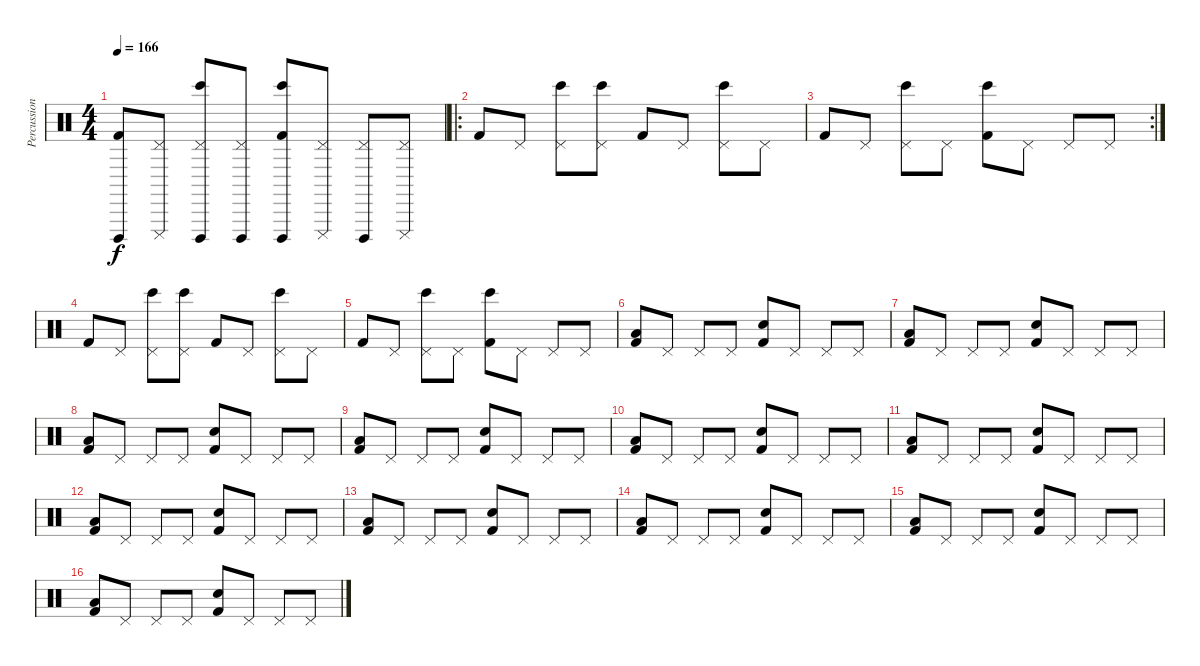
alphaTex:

\track ("Percussion" "Percussion") {instrument percussion}
\staff {score}
\articulation defaults
\ts (4 4)
\tempo 166
\clef neutral
\ks c
("Kick (hit) 2" "Cuica (open)").8{dy f} ("Pedal Hi-Hat (hit)" "Cuica (mute)").8 ("Pedal Hi-Hat (hit)" "Bongo High (hit)" "Cuica (open)").8 ("Pedal Hi-Hat (hit)" "Cuica (open)").8 ("Kick (hit) 2" "Bongo High (hit)" "Cuica (open)").8 ("Pedal Hi-Hat (hit)" "Cuica (mute)").8 ("Pedal Hi-Hat (hit)" "Cuica (open)").8 ("Pedal Hi-Hat (hit)" "Cuica (mute)").8 |
\ro "Kick (hit) 2".8 "Pedal Hi-Hat (hit)".8
("Pedal Hi-Hat (hit)" "Bongo High (hit)").8 ("Pedal Hi-Hat (hit)" "Bongo High (hit)").8 "Kick (hit) 2".8 "Pedal Hi-Hat (hit)".8 ("Pedal Hi-Hat (hit)" "Bongo High (hit)").8 "Pedal Hi-Hat (hit)".8 |
\rc 2 "Kick (hit) 2".8 "Pedal Hi-Hat (hit)".8
("Pedal Hi-Hat (hit)" "Bongo High (hit)").8 "Pedal Hi-Hat (hit)".8 ("Kick (hit) 2" "Bongo High (hit)").8 "Pedal Hi-Hat (hit)".8 "Pedal Hi-Hat (hit)".8 "Pedal Hi-Hat (hit)".8 |
"Kick (hit) 2".8 "Pedal Hi-Hat (hit)".8 ("Pedal Hi-Hat (hit)" "Bongo High (hit)").8 ("Pedal Hi-Hat (hit)" "Bongo High (hit)").8 "Kick (hit) 2".8 "Pedal Hi-Hat (hit)".8 ("Pedal Hi-Hat (hit)" "Bongo High (hit)").8 "Pedal Hi-Hat (hit)".8 |
"Kick (hit) 2".8 "Pedal Hi-Hat (hit)".8 ("Pedal Hi-Hat (hit)" "Bongo High (hit)").8 "Pedal Hi-Hat (hit)".8 ("Kick (hit) 2" "Bongo High (hit)").8 "Pedal Hi-Hat (hit)".8 "Pedal Hi-Hat (hit)".8 "Pedal Hi-Hat (hit)".8 |
("Kick (hit) 2" "Low Tom (hit)").8 "Pedal Hi-Hat (hit)".8 "Pedal Hi-Hat (hit)".8 "Pedal Hi-Hat (hit)".8 ("Kick (hit) 2" "Electric Snare (hit)").8 "Pedal Hi-Hat (hit)".8 "Pedal Hi-Hat (hit)".8 "Pedal Hi-Hat (hit)".8 |
("Kick (hit) 2" "Low Tom (hit)").8 "Pedal Hi-Hat (hit)".8 "Pedal Hi-Hat (hit)".8 "Pedal Hi-Hat (hit)".8 ("Kick (hit) 2" "Electric Snare (hit)").8 "Pedal Hi-Hat (hit)".8 "Pedal Hi-Hat (hit)".8 "Pedal Hi-Hat (hit)".8 |
("Kick (hit) 2" "Low Tom (hit)").8 "Pedal Hi-Hat (hit)".8 "Pedal Hi-Hat (hit)".8 "Pedal Hi-Hat (hit)".8 ("Kick (hit) 2" "Electric Snare (hit)").8 "Pedal Hi-Hat (hit)".8 "Pedal Hi-Hat (hit)".8 "Pedal Hi-Hat (hit)".8 |
("Kick (hit) 2" "Low Tom (hit)").8 "Pedal Hi-Hat (hit)".8 "Pedal Hi-Hat (hit)".8 "Pedal Hi-Hat (hit)".8 ("Kick (hit) 2" "Electric Snare (hit)").8 "Pedal Hi-Hat (hit)".8 "Pedal Hi-Hat (hit)".8 "Pedal Hi-Hat (hit)".8 |
("Kick (hit) 2" "Low Tom (hit)").8 "Pedal Hi-Hat (hit)".8 "Pedal Hi-Hat (hit)".8 "Pedal Hi-Hat (hit)".8 ("Kick (hit) 2" "Electric Snare (hit)").8 "Pedal Hi-Hat (hit)".8 "Pedal Hi-Hat (hit)".8 "Pedal Hi-Hat (hit)".8 |
("Kick (hit) 2" "Low Tom (hit)").8 "Pedal Hi-Hat (hit)".8 "Pedal Hi-Hat (hit)".8 "Pedal Hi-Hat (hit)".8 ("Kick (hit) 2" "Electric Snare (hit)").8 "Pedal Hi-Hat (hit)".8 "Pedal Hi-Hat (hit)".8 "Pedal Hi-Hat (hit)".8 |
("Kick (hit) 2" "Low Tom (hit)").8 "Pedal Hi-Hat (hit)".8 "Pedal Hi-Hat (hit)".8 "Pedal Hi-Hat (hit)".8 ("Kick (hit) 2" "Electric Snare (hit)").8 "Pedal Hi-Hat (hit)".8 "Pedal Hi-Hat (hit)".8 "Pedal Hi-Hat (hit)".8 |
("Kick (hit) 2" "Low Tom (hit)").8 "Pedal Hi-Hat (hit)".8 "Pedal Hi-Hat (hit)".8 "Pedal Hi-Hat (hit)".8 ("Kick (hit) 2" "Electric Snare (hit)").8 "Pedal Hi-Hat (hit)".8 "Pedal Hi-Hat (hit)".8 "Pedal Hi-Hat (hit)".8 |
("Kick (hit) 2" "Low Tom (hit)").8 "Pedal Hi-Hat (hit)".8 "Pedal Hi-Hat (hit)".8 "Pedal Hi-Hat (hit)".8 ("Kick (hit) 2" "Electric Snare (hit)").8 "Pedal Hi-Hat (hit)".8 "Pedal Hi-Hat (hit)".8 "Pedal Hi-Hat (hit)".8 |
("Kick (hit) 2" "Low Tom (hit)").8 "Pedal Hi-Hat (hit)".8 "Pedal Hi-Hat (hit)".8 "Pedal Hi-Hat (hit)".8 ("Kick (hit) 2" "Electric Snare (hit)").8 "Pedal Hi-Hat (hit)".8 "Pedal Hi-Hat (hit)".8 "Pedal Hi-Hat (hit)".8 |
("Kick (hit) 2" "Low Tom (hit)").8 "Pedal Hi-Hat (hit)".8 "Pedal Hi-Hat (hit)".8 "Pedal Hi-Hat (hit)".8 ("Kick (hit) 2" "Electric Snare (hit)").8 "Pedal Hi-Hat (hit)".8 "Pedal Hi-Hat (hit)".8 "Pedal Hi-Hat (hit)".8
